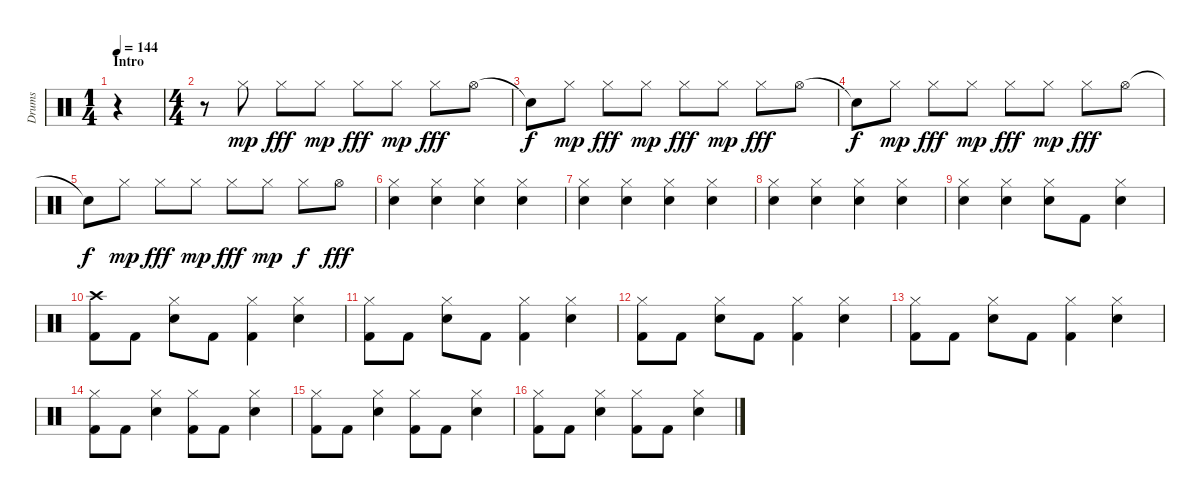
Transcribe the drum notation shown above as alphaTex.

\track ("Drums" "Drums") {instrument percussion}
\staff {score}
\articulation defaults
\ts (1 4)
\section ("" "Intro")
\tempo 144
\clef neutral
\ks c
r.4{dy mp} |
\ts (4 4)
r.8 "Hi-Hat (closed)".8 "Hi-Hat (closed)".8{dy fff} "Hi-Hat (closed)".8{dy mp} "Hi-Hat (closed)".8{dy fff} "Hi-Hat (closed)".8{dy mp} "Hi-Hat (closed)".8{dy fff} "Hi-Hat (open)".8 |
"Snare (hit)"{t}.8{dy f} "Hi-Hat (closed)".8{dy mp} "Hi-Hat (closed)".8{dy fff} "Hi-Hat (closed)".8{dy mp} "Hi-Hat (closed)".8{dy fff} "Hi-Hat (closed)".8{dy mp} "Hi-Hat (closed)".8{dy fff} "Hi-Hat (open)".8 |
"Snare (hit)"{t}.8{dy f} "Hi-Hat (closed)".8{dy mp} "Hi-Hat (closed)".8{dy fff} "Hi-Hat (closed)".8{dy mp} "Hi-Hat (closed)".8{dy fff} "Hi-Hat (closed)".8{dy mp} "Hi-Hat (closed)".8{dy fff} "Hi-Hat (open)".8 |
"Snare (hit)"{t}.8{dy f} "Hi-Hat (closed)".8{dy mp} "Hi-Hat (closed)".8{dy fff} "Hi-Hat (closed)".8{dy mp} "Hi-Hat (closed)".8{dy fff} "Hi-Hat (closed)".8{dy mp} "Hi-Hat (closed)".8{dy f} "Hi-Hat (open)".8{dy fff} |
("Hi-Hat (closed)" "Snare (hit) 2").4 ("Hi-Hat (closed)" "Snare (hit) 2").4 ("Hi-Hat (closed)" "Snare (hit) 2").4 ("Hi-Hat (closed)" "Snare (hit) 2").4 |
("Hi-Hat (closed)" "Snare (hit) 2").4 ("Hi-Hat (closed)" "Snare (hit) 2").4 ("Hi-Hat (closed)" "Snare (hit) 2").4 ("Hi-Hat (closed)" "Snare (hit) 2").4 |
("Hi-Hat (closed)" "Snare (hit) 2").4 ("Hi-Hat (closed)" "Snare (hit) 2").4 ("Hi-Hat (closed)" "Snare (hit) 2").4 ("Hi-Hat (closed)" "Snare (hit) 2").4 |
("Hi-Hat (closed)" "Snare (hit) 2").4 ("Hi-Hat (closed)" "Snare (hit) 2").4 ("Hi-Hat (closed)" "Snare (hit) 2").8 "Kick (hit) 2".8 ("Hi-Hat (closed)" "Snare (hit) 2").4 |
("Crash high (hit)" "Kick (hit) 2").8 "Kick (hit) 2".8 ("Hi-Hat (closed)" "Snare (hit) 2").8 "Kick (hit) 2".8 ("Hi-Hat (closed)" "Kick (hit) 2").4 ("Hi-Hat (closed)" "Snare (hit) 2").4 |
("Hi-Hat (closed)" "Kick (hit) 2").8 "Kick (hit) 2".8 ("Hi-Hat (closed)" "Snare (hit) 2").8 "Kick (hit) 2".8 ("Hi-Hat (closed)" "Kick (hit) 2").4 ("Hi-Hat (closed)" "Snare (hit) 2").4 |
("Hi-Hat (closed)" "Kick (hit) 2").8 "Kick (hit) 2".8 ("Hi-Hat (closed)" "Snare (hit) 2").8 "Kick (hit) 2".8 ("Hi-Hat (closed)" "Kick (hit) 2").4 ("Hi-Hat (closed)" "Snare (hit) 2").4 |
("Hi-Hat (closed)" "Kick (hit) 2").8 "Kick (hit) 2".8 ("Hi-Hat (closed)" "Snare (hit) 2").8 "Kick (hit) 2".8 ("Hi-Hat (closed)" "Kick (hit) 2").4 ("Hi-Hat (closed)" "Snare (hit) 2").4 |
("Hi-Hat (closed)" "Kick (hit) 2").8 "Kick (hit) 2".8 ("Hi-Hat (closed)" "Snare (hit) 2").4 ("Hi-Hat (closed)" "Kick (hit) 2").8 "Kick (hit) 2".8 ("Hi-Hat (closed)" "Snare (hit) 2").4 |
("Hi-Hat (closed)" "Kick (hit) 2").8 "Kick (hit) 2".8 ("Hi-Hat (closed)" "Snare (hit) 2").4 ("Hi-Hat (closed)" "Kick (hit) 2").8 "Kick (hit) 2".8 ("Hi-Hat (closed)" "Snare (hit) 2").4 |
("Hi-Hat (closed)" "Kick (hit) 2").8 "Kick (hit) 2".8 ("Hi-Hat (closed)" "Snare (hit) 2").4 ("Hi-Hat (closed)" "Kick (hit) 2").8 "Kick (hit) 2".8 ("Hi-Hat (closed)" "Snare (hit) 2").4
